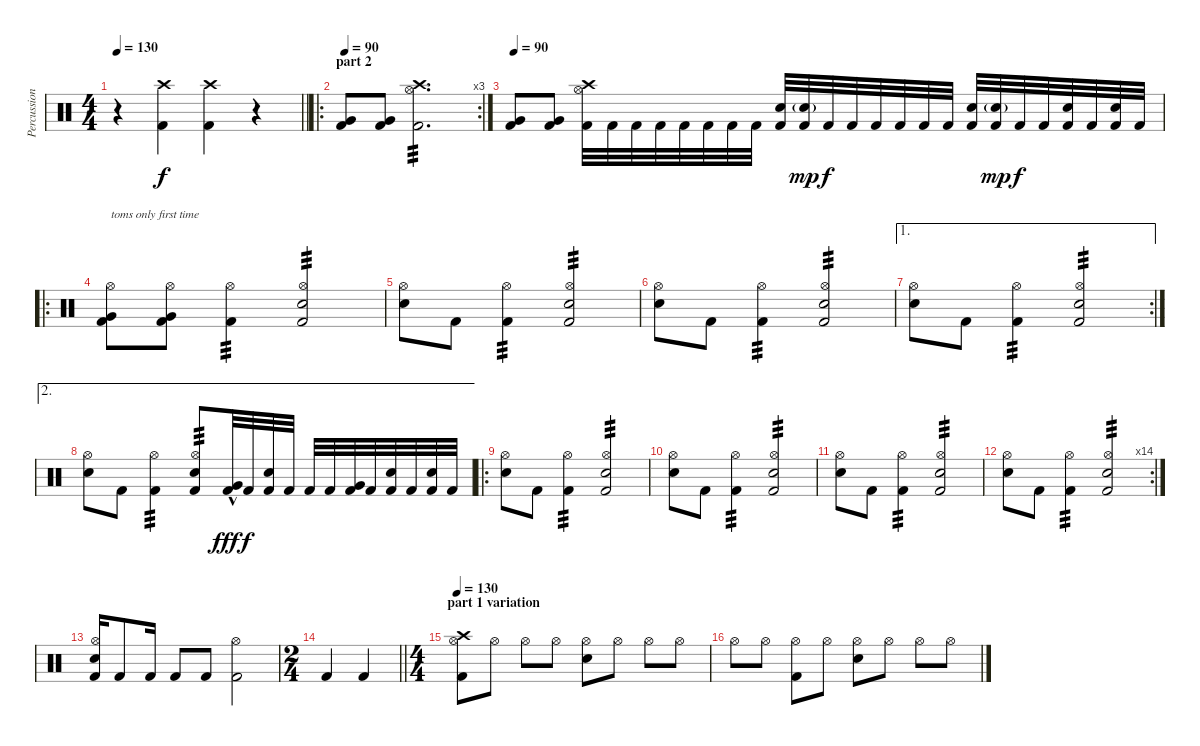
\track ("Percussion" "Percussion") {instrument percussion}
\staff {score}
\articulation defaults
\ts (4 4)
\tempo 130
\clef neutral
\barLineRight lightlight
\ks c
r.4{dy f} ("Kick (hit) 2" "Crash high (hit)").4 ("Kick (hit) 2" "Crash high (hit)").4 r.4 |
\ro
\rc 3
\section ("" "part 2")
\tempo 90
("Kick (hit) 2" "Very Low Tom (hit)").8 ("Kick (hit) 2" "Very Low Tom (hit)").8 ("Kick (hit) 2" "Hi-Hat (open)" "Crash high (hit)").2{d tp 3} |
\tempo 90
("Kick (hit) 2" "Very Low Tom (hit)").8 ("Kick (hit) 2" "Very Low Tom (hit)").8 ("Kick (hit) 2" "Hi-Hat (open)" "Crash high (hit)").32 "Kick (hit) 2".32 "Kick (hit) 2".32 "Kick (hit) 2".32 "Kick (hit) 2".32 "Kick (hit) 2".32 "Kick (hit) 2".32 "Kick (hit) 2".32 ("Kick (hit) 2" "Electric Snare (hit)").32 ("Kick (hit) 2" "Electric Snare (hit)"{g}).32{dy mp} "Kick (hit) 2".32{dy f} "Kick (hit) 2".32 "Kick (hit) 2".32 "Kick (hit) 2".32 "Kick (hit) 2".32 "Kick (hit) 2".32 ("Kick (hit) 2" "Electric Snare (hit)").32 ("Kick (hit) 2" "Electric Snare (hit)"{g}).32{dy mp} "Kick (hit) 2".32{dy f} "Kick (hit) 2".32 ("Kick (hit) 2" "Electric Snare (hit)").32 "Kick (hit) 2".32 ("Kick (hit) 2" "Electric Snare (hit)").32 "Kick (hit) 2".32 |
\ro
("Kick (hit) 2" "Very Low Tom (hit)" "Hi-Hat (open)").8{txt "toms only first time"} ("Kick (hit) 2" "Very Low Tom (hit)" "Hi-Hat (open)").8 ("Kick (hit) 2" "Hi-Hat (open)").4{tp 3} ("Kick (hit) 2" "Electric Snare (hit)" "Hi-Hat (open)").2{tp 3} |
("Electric Snare (hit)" "Hi-Hat (open)").8 "Kick (hit) 2".8 ("Kick (hit) 2" "Hi-Hat (open)").4{tp 3} ("Kick (hit) 2" "Electric Snare (hit)" "Hi-Hat (open)").2{tp 3} |
("Electric Snare (hit)" "Hi-Hat (open)").8 "Kick (hit) 2".8 ("Kick (hit) 2" "Hi-Hat (open)").4{tp 3} ("Kick (hit) 2" "Electric Snare (hit)" "Hi-Hat (open)").2{tp 3} |
\ae 1
\rc 2
("Electric Snare (hit)" "Hi-Hat (open)").8 "Kick (hit) 2".8 ("Kick (hit) 2" "Hi-Hat (open)").4{tp 3} ("Kick (hit) 2" "Electric Snare (hit)" "Hi-Hat (open)").2{tp 3} |
\ae 2
("Electric Snare (hit)" "Hi-Hat (open)").8 "Kick (hit) 2".8 ("Kick (hit) 2" "Hi-Hat (open)").4{tp 3} ("Kick (hit) 2" "Electric Snare (hit)" "Hi-Hat (open)").8{tp 3} ("Kick (hit) 2" "Very Low Tom (hit)"{hac}).32{dy fff} "Kick (hit) 2".32{dy f} ("Kick (hit) 2" "Electric Snare (hit)").32 "Kick (hit) 2".32 "Kick (hit) 2".32 "Kick (hit) 2".32 ("Kick (hit) 2" "Very Low Tom (hit)").32 "Kick (hit) 2".32 ("Kick (hit) 2" "Electric Snare (hit)").32 "Kick (hit) 2".32 ("Kick (hit) 2" "Electric Snare (hit)").32 "Kick (hit) 2".32 |
\ro
("Electric Snare (hit)" "Hi-Hat (open)").8 "Kick (hit) 2".8 ("Kick (hit) 2" "Hi-Hat (open)").4{tp 3} ("Kick (hit) 2" "Electric Snare (hit)" "Hi-Hat (open)").2{tp 3} |
("Electric Snare (hit)" "Hi-Hat (open)").8 "Kick (hit) 2".8 ("Kick (hit) 2" "Hi-Hat (open)").4{tp 3} ("Kick (hit) 2" "Electric Snare (hit)" "Hi-Hat (open)").2{tp 3} |
("Electric Snare (hit)" "Hi-Hat (open)").8 "Kick (hit) 2".8 ("Kick (hit) 2" "Hi-Hat (open)").4{tp 3} ("Kick (hit) 2" "Electric Snare (hit)" "Hi-Hat (open)").2{tp 3} |
\rc 14
("Electric Snare (hit)" "Hi-Hat (open)").8 "Kick (hit) 2".8 ("Kick (hit) 2" "Hi-Hat (open)").4{tp 3} ("Kick (hit) 2" "Electric Snare (hit)" "Hi-Hat (open)").2{tp 3} |
("Kick (hit) 2" "Electric Snare (hit)" "Hi-Hat (open)").16 "Kick (hit) 2".8 "Kick (hit) 2".16 "Kick (hit) 2".8 "Kick (hit) 2".8 ("Kick (hit) 2" "Hi-Hat (open)").2 |
\ts (2 4)
\barLineRight lightlight "Kick (hit) 2".4 "Kick (hit) 2".4
|
\ts (4 4)
\section ("" "part 1 variation")
\tempo 130
("Kick (hit) 2" "Crash high (hit)" "Hi-Hat (open)").8 "Hi-Hat (open)".8 "Hi-Hat (open)".8 "Hi-Hat (open)".8 ("Electric Snare (hit)" "Hi-Hat (open)").8 "Hi-Hat (open)".8 "Hi-Hat (open)".8 "Hi-Hat (open)".8 |
"Hi-Hat (open)".8 "Hi-Hat (open)".8 ("Kick (hit) 2" "Hi-Hat (open)").8 "Hi-Hat (open)".8 ("Electric Snare (hit)" "Hi-Hat (open)").8 "Hi-Hat (open)".8 "Hi-Hat (open)".8 "Hi-Hat (open)".8
